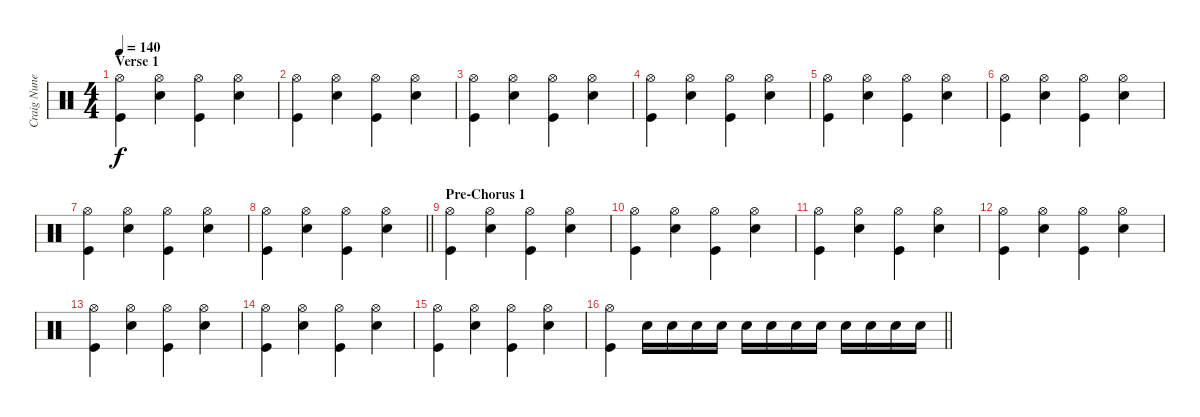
\track ("Craig Nunenmacher" "Craig Nune") {instrument percussion}
\staff {score}
\articulation defaults
\ts (4 4)
\section ("" "Verse 1")
\tempo 140
\clef neutral
\ks c
("Hi-Hat (open)" "Kick (hit)").4{dy f} ("Snare (hit) 2" "Hi-Hat (open)").4 ("Hi-Hat (open)" "Kick (hit)").4 ("Snare (hit) 2" "Hi-Hat (open)").4 |
("Hi-Hat (open)" "Kick (hit)").4 ("Snare (hit) 2" "Hi-Hat (open)").4 ("Hi-Hat (open)" "Kick (hit)").4 ("Snare (hit) 2" "Hi-Hat (open)").4 |
("Hi-Hat (open)" "Kick (hit)").4 ("Snare (hit) 2" "Hi-Hat (open)").4 ("Hi-Hat (open)" "Kick (hit)").4 ("Snare (hit) 2" "Hi-Hat (open)").4 |
("Hi-Hat (open)" "Kick (hit)").4 ("Snare (hit) 2" "Hi-Hat (open)").4 ("Hi-Hat (open)" "Kick (hit)").4 ("Snare (hit) 2" "Hi-Hat (open)").4 |
("Hi-Hat (open)" "Kick (hit)").4 ("Snare (hit) 2" "Hi-Hat (open)").4 ("Hi-Hat (open)" "Kick (hit)").4 ("Snare (hit) 2" "Hi-Hat (open)").4 |
("Hi-Hat (open)" "Kick (hit)").4 ("Snare (hit) 2" "Hi-Hat (open)").4 ("Hi-Hat (open)" "Kick (hit)").4 ("Snare (hit) 2" "Hi-Hat (open)").4 |
("Hi-Hat (open)" "Kick (hit)").4 ("Snare (hit) 2" "Hi-Hat (open)").4 ("Hi-Hat (open)" "Kick (hit)").4 ("Snare (hit) 2" "Hi-Hat (open)").4 |
\barLineRight lightlight
("Hi-Hat (open)" "Kick (hit)").4 ("Snare (hit) 2" "Hi-Hat (open)").4 ("Hi-Hat (open)" "Kick (hit)").4 ("Snare (hit) 2" "Hi-Hat (open)").4 |
\section ("" "Pre-Chorus 1")
("Hi-Hat (open)" "Kick (hit)").4 ("Snare (hit) 2" "Hi-Hat (open)").4 ("Hi-Hat (open)" "Kick (hit)").4 ("Snare (hit) 2" "Hi-Hat (open)").4 |
("Hi-Hat (open)" "Kick (hit)").4 ("Snare (hit) 2" "Hi-Hat (open)").4 ("Hi-Hat (open)" "Kick (hit)").4 ("Snare (hit) 2" "Hi-Hat (open)").4 |
("Hi-Hat (open)" "Kick (hit)").4 ("Snare (hit) 2" "Hi-Hat (open)").4 ("Hi-Hat (open)" "Kick (hit)").4 ("Snare (hit) 2" "Hi-Hat (open)").4 |
("Hi-Hat (open)" "Kick (hit)").4 ("Snare (hit) 2" "Hi-Hat (open)").4 ("Hi-Hat (open)" "Kick (hit)").4 ("Snare (hit) 2" "Hi-Hat (open)").4 |
("Hi-Hat (open)" "Kick (hit)").4 ("Snare (hit) 2" "Hi-Hat (open)").4 ("Hi-Hat (open)" "Kick (hit)").4 ("Snare (hit) 2" "Hi-Hat (open)").4 |
("Hi-Hat (open)" "Kick (hit)").4 ("Snare (hit) 2" "Hi-Hat (open)").4 ("Hi-Hat (open)" "Kick (hit)").4 ("Snare (hit) 2" "Hi-Hat (open)").4 |
("Hi-Hat (open)" "Kick (hit)").4 ("Snare (hit) 2" "Hi-Hat (open)").4 ("Hi-Hat (open)" "Kick (hit)").4 ("Snare (hit) 2" "Hi-Hat (open)").4 |
\barLineRight lightlight
("Hi-Hat (open)" "Kick (hit)").4 "Snare (hit) 2".16 "Snare (hit) 2".16 "Snare (hit) 2".16 "Snare (hit) 2".16 "Snare (hit) 2".16 "Snare (hit) 2".16 "Snare (hit) 2".16 "Snare (hit) 2".16 "Snare (hit) 2".16 "Snare (hit) 2".16 "Snare (hit) 2".16 "Snare (hit) 2".16
